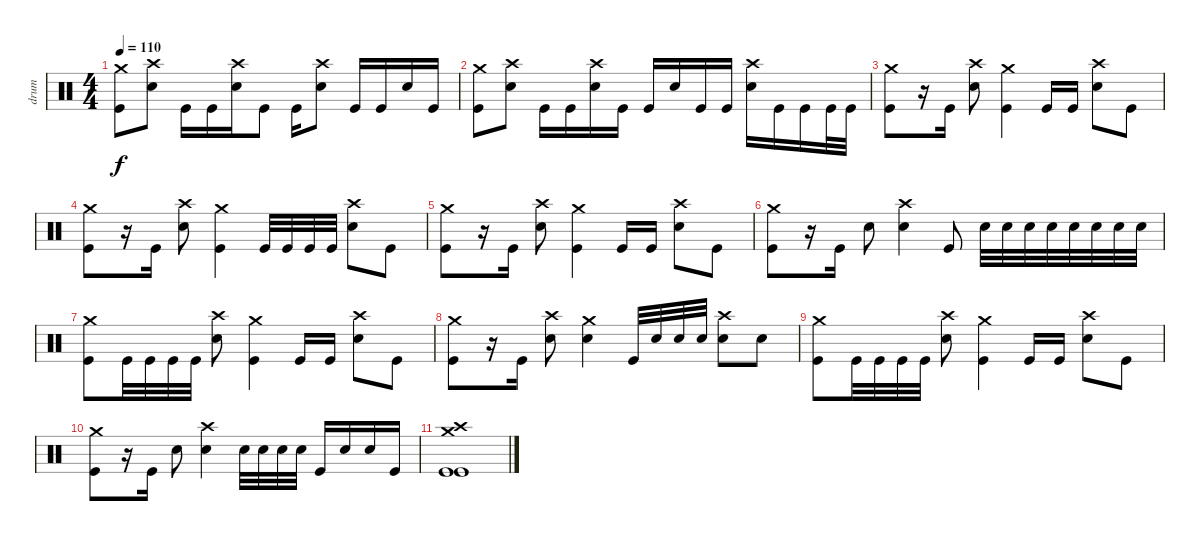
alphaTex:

\track ("drum" "drum") {instrument percussion}
\staff {score}
\articulation defaults
\ts (4 4)
\tempo 110
\clef neutral
\ks c
("Crash medium (hit)" "Kick (hit)").8{dy f} ("Crash high (hit)" "Electric Snare (hit)").8 "Kick (hit)".16 "Kick (hit)".16 ("Crash high (hit)" "Electric Snare (hit)").16 "Kick (hit)".8 "Kick (hit)".16 ("Crash high (hit)" "Electric Snare (hit)").8 "Kick (hit)".16 "Kick (hit)".16 "Electric Snare (hit)".16 "Kick (hit)".16 |
("Crash medium (hit)" "Kick (hit)").8 ("Crash high (hit)" "Electric Snare (hit)").8 "Kick (hit)".16 "Kick (hit)".16 ("Crash high (hit)" "Electric Snare (hit)").16 "Kick (hit)".16 "Kick (hit)".16 "Electric Snare (hit)".16 "Kick (hit)".16 "Kick (hit)".16 ("Crash high (hit)" "Electric Snare (hit)").16 "Kick (hit)".16 "Kick (hit)".16 "Kick (hit)".32 "Kick (hit)".32 |
("Crash medium (hit)" "Kick (hit)").8 r.16 "Kick (hit)".16 ("Crash high (hit)" "Electric Snare (hit)").8 ("Crash medium (hit)" "Kick (hit)").4 "Kick (hit)".16 "Kick (hit)".16 ("Crash high (hit)" "Electric Snare (hit)").8 "Kick (hit)".8 |
("Crash medium (hit)" "Kick (hit)").8 r.16 "Kick (hit)".16 ("Crash high (hit)" "Electric Snare (hit)").8 ("Crash medium (hit)" "Kick (hit)").4 "Kick (hit)".32 "Kick (hit)".32 "Kick (hit)".32 "Kick (hit)".32 ("Crash high (hit)" "Electric Snare (hit)").8 "Kick (hit)".8 |
("Crash medium (hit)" "Kick (hit)").8 r.16 "Kick (hit)".16 ("Crash high (hit)" "Electric Snare (hit)").8 ("Crash medium (hit)" "Kick (hit)").4 "Kick (hit)".16 "Kick (hit)".16 ("Crash high (hit)" "Electric Snare (hit)").8 "Kick (hit)".8 |
("Crash medium (hit)" "Kick (hit)").8 r.16 "Kick (hit)".16 "Electric Snare (hit)".8 ("Crash high (hit)" "Electric Snare (hit)").4 "Kick (hit)".8 "Electric Snare (hit)".32 "Electric Snare (hit)".32 "Electric Snare (hit)".32 "Electric Snare (hit)".32 "Electric Snare (hit)".32 "Electric Snare (hit)".32 "Electric Snare (hit)".32 "Electric Snare (hit)".32 |
("Crash medium (hit)" "Kick (hit)").8 "Kick (hit)".32 "Kick (hit)".32 "Kick (hit)".32 "Kick (hit)".32 ("Crash high (hit)" "Electric Snare (hit)").8 ("Crash medium (hit)" "Kick (hit)").4 "Kick (hit)".16 "Kick (hit)".16 ("Crash high (hit)" "Electric Snare (hit)").8 "Kick (hit)".8 |
("Crash medium (hit)" "Kick (hit)").8 r.16 "Kick (hit)".16 ("Crash high (hit)" "Electric Snare (hit)").8 ("Crash medium (hit)" "Electric Snare (hit)").4 "Kick (hit)".32 "Electric Snare (hit)".32 "Electric Snare (hit)".32 "Electric Snare (hit)".32 ("Crash high (hit)" "Electric Snare (hit)").8 "Electric Snare (hit)".8 |
("Crash medium (hit)" "Kick (hit)").8 "Kick (hit)".32 "Kick (hit)".32 "Kick (hit)".32 "Kick (hit)".32 ("Crash high (hit)" "Electric Snare (hit)").8 ("Crash medium (hit)" "Kick (hit)").4 "Kick (hit)".16 "Kick (hit)".16 ("Crash high (hit)" "Electric Snare (hit)").8 "Kick (hit)".8 |
("Crash medium (hit)" "Kick (hit)").8 r.16 "Kick (hit)".16 "Electric Snare (hit)".8 ("Crash high (hit)" "Electric Snare (hit)").4 "Electric Snare (hit)".32 "Electric Snare (hit)".32 "Electric Snare (hit)".32 "Electric Snare (hit)".32 "Kick (hit)".16 "Electric Snare (hit)".16 "Electric Snare (hit)".16 "Kick (hit)".16 |
("Crash high (hit)" "Crash medium (hit)" "Kick (hit)" "Kick (hit)").1
